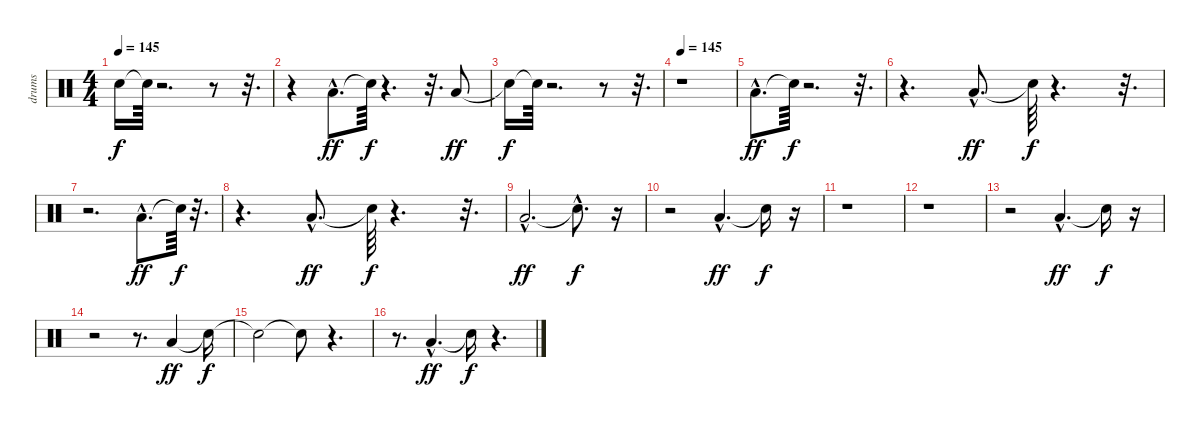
\track ("drums" "drums") {instrument percussion}
\staff {score}
\articulation defaults
\ts (4 4)
\tempo 145
\clef neutral
\ks c "Snare (hit)"{t}.16{dy f} "Snare (hit)"{t}.64
r.2{d} r.8 r.32{d} |
r.4 "Low Tom (hit)"{hac}.8{d dy ff} "Snare (hit)"{t}.64{dy f} r.4{d} r.32{d} "Low Tom (hit)".8{dy ff} |
"Snare (hit)"{t}.16{dy f} "Snare (hit)"{t}.64 r.2{d} r.8 r.32{d} |
\tempo 145
r.1 |
"Low Tom (hit)"{hac}.8{d dy ff} "Snare (hit)"{t}.64{dy f} r.2{d} r.32{d} |
r.4{d} "Low Tom (hit)"{hac}.8{d dy ff} "Snare (hit)"{t}.64{dy f} r.4{d} r.32{d} |
r.2{d} "Low Tom (hit)"{hac}.8{d dy ff} "Snare (hit)"{t}.64{dy f} r.32{d} |
r.4{d} "Low Tom (hit)"{hac}.8{d dy ff} "Snare (hit)"{t}.64{dy f} r.4{d} r.32{d} |
"Low Tom (hit)"{hac}.2{d dy ff} "Snare (hit)"{hac t}.8{d dy f} r.16 |
r.2 "Low Tom (hit)"{hac}.4{d dy ff} "Snare (hit)"{t}.16{dy f} r.16 |
r.1 |
r.1 |
r.2 "Low Tom (hit)"{hac}.4{d dy ff} "Snare (hit)"{t}.16{dy f} r.16 |
r.2 r.8{d} "Low Tom (hit)".4{dy ff} "Snare (hit)"{t}.16{dy f} |
"Snare (hit)"{t}.2 "Snare (hit)"{t}.8 r.4{d} |
r.8{d} "Low Tom (hit)"{hac}.4{d dy ff} "Snare (hit)"{t}.16{dy f} r.4{d}
